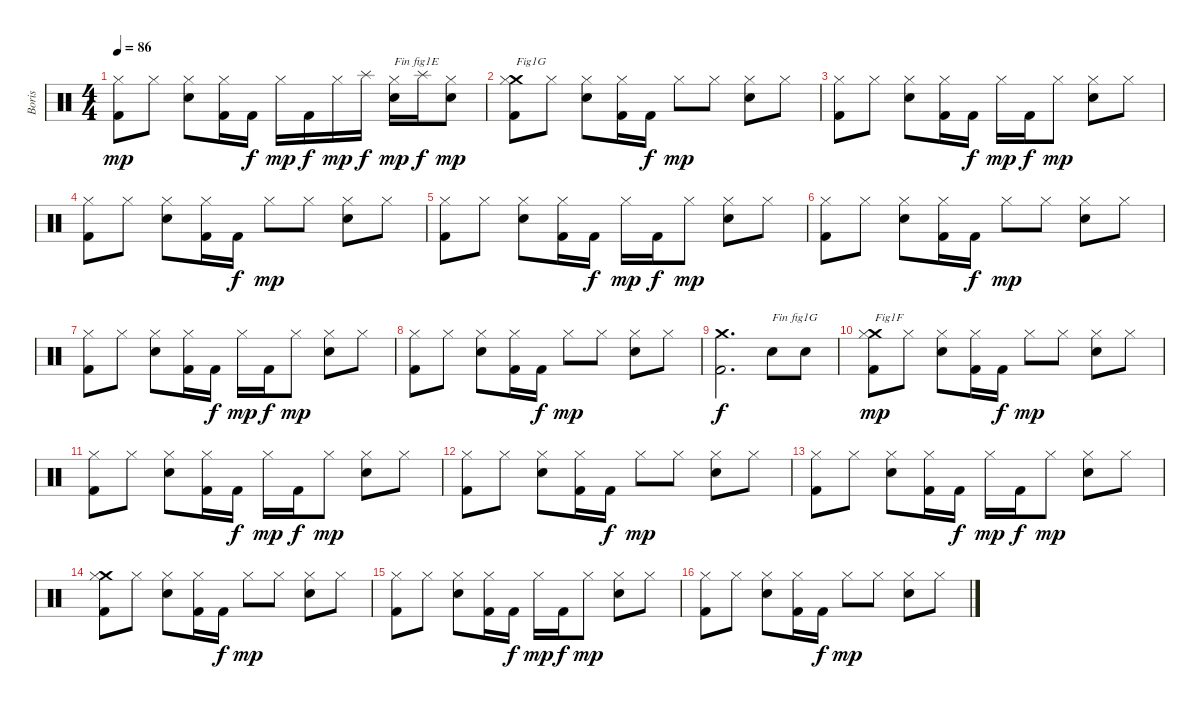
\track ("Boris" "Boris") {instrument percussion}
\staff {score}
\articulation defaults
\ts (4 4)
\tempo 86
\clef neutral
\ks c
("Kick (hit) 2" "Hi-Hat (closed)").8{dy mp} "Hi-Hat (closed)".8 ("Electric Snare (hit)" "Hi-Hat (closed)").8 ("Kick (hit) 2" "Hi-Hat (closed)").16 "Kick (hit) 2".16{dy f} "Hi-Hat (closed)".16{dy mp} "Kick (hit) 2".16{dy f} "Hi-Hat (closed)".16{dy mp} "Splash (hit)".16{dy f} ("Electric Snare (hit)" "Hi-Hat (closed)").16{txt "Fin fig1E" dy mp} "Splash (hit)".16{dy f} ("Electric Snare (hit)" "Hi-Hat (closed)").8{dy mp} |
("Kick (hit) 2" "Crash medium (hit)" "Hi-Hat (closed)").8{txt "Fig1G"} "Hi-Hat (closed)".8 ("Electric Snare (hit)" "Hi-Hat (closed)").8 ("Kick (hit) 2" "Hi-Hat (closed)").16 "Kick (hit) 2".16{dy f} "Hi-Hat (closed)".8{dy mp} "Hi-Hat (closed)".8 ("Electric Snare (hit)" "Hi-Hat (closed)").8 "Hi-Hat (closed)".8 |
("Kick (hit) 2" "Hi-Hat (closed)").8 "Hi-Hat (closed)".8 ("Electric Snare (hit)" "Hi-Hat (closed)").8 ("Kick (hit) 2" "Hi-Hat (closed)").16 "Kick (hit) 2".16{dy f} "Hi-Hat (closed)".16{dy mp} "Kick (hit) 2".16{dy f} "Hi-Hat (closed)".8{dy mp} ("Electric Snare (hit)" "Hi-Hat (closed)").8 "Hi-Hat (closed)".8 |
("Kick (hit) 2" "Hi-Hat (closed)").8 "Hi-Hat (closed)".8 ("Electric Snare (hit)" "Hi-Hat (closed)").8 ("Kick (hit) 2" "Hi-Hat (closed)").16 "Kick (hit) 2".16{dy f} "Hi-Hat (closed)".8{dy mp} "Hi-Hat (closed)".8 ("Electric Snare (hit)" "Hi-Hat (closed)").8 "Hi-Hat (closed)".8 |
("Kick (hit) 2" "Hi-Hat (closed)").8 "Hi-Hat (closed)".8 ("Electric Snare (hit)" "Hi-Hat (closed)").8 ("Kick (hit) 2" "Hi-Hat (closed)").16 "Kick (hit) 2".16{dy f} "Hi-Hat (closed)".16{dy mp} "Kick (hit) 2".16{dy f} "Hi-Hat (closed)".8{dy mp} ("Electric Snare (hit)" "Hi-Hat (closed)").8 "Hi-Hat (closed)".8 |
("Kick (hit) 2" "Hi-Hat (closed)").8 "Hi-Hat (closed)".8 ("Electric Snare (hit)" "Hi-Hat (closed)").8 ("Kick (hit) 2" "Hi-Hat (closed)").16 "Kick (hit) 2".16{dy f} "Hi-Hat (closed)".8{dy mp} "Hi-Hat (closed)".8 ("Electric Snare (hit)" "Hi-Hat (closed)").8 "Hi-Hat (closed)".8 |
("Kick (hit) 2" "Hi-Hat (closed)").8 "Hi-Hat (closed)".8 ("Electric Snare (hit)" "Hi-Hat (closed)").8 ("Kick (hit) 2" "Hi-Hat (closed)").16 "Kick (hit) 2".16{dy f} "Hi-Hat (closed)".16{dy mp} "Kick (hit) 2".16{dy f} "Hi-Hat (closed)".8{dy mp} ("Electric Snare (hit)" "Hi-Hat (closed)").8 "Hi-Hat (closed)".8 |
("Kick (hit) 2" "Hi-Hat (closed)").8 "Hi-Hat (closed)".8 ("Electric Snare (hit)" "Hi-Hat (closed)").8 ("Kick (hit) 2" "Hi-Hat (closed)").16 "Kick (hit) 2".16{dy f} "Hi-Hat (closed)".8{dy mp} "Hi-Hat (closed)".8 ("Electric Snare (hit)" "Hi-Hat (closed)").8 "Hi-Hat (closed)".8 |
("Kick (hit) 2" "Crash medium (hit)").2{d dy f} "Electric Snare (hit)".8{txt "Fin fig1G"} "Electric Snare (hit)".8 |
("Kick (hit) 2" "Crash medium (hit)" "Hi-Hat (closed)").8{txt "Fig1F" dy mp} "Hi-Hat (closed)".8 ("Electric Snare (hit)" "Hi-Hat (closed)").8 ("Kick (hit) 2" "Hi-Hat (closed)").16 "Kick (hit) 2".16{dy f} "Hi-Hat (closed)".8{dy mp} "Hi-Hat (closed)".8 ("Electric Snare (hit)" "Hi-Hat (closed)").8 "Hi-Hat (closed)".8 |
("Kick (hit) 2" "Hi-Hat (closed)").8 "Hi-Hat (closed)".8 ("Electric Snare (hit)" "Hi-Hat (closed)").8 ("Kick (hit) 2" "Hi-Hat (closed)").16 "Kick (hit) 2".16{dy f} "Hi-Hat (closed)".16{dy mp} "Kick (hit) 2".16{dy f} "Hi-Hat (closed)".8{dy mp} ("Electric Snare (hit)" "Hi-Hat (closed)").8 "Hi-Hat (closed)".8 |
("Kick (hit) 2" "Hi-Hat (closed)").8 "Hi-Hat (closed)".8 ("Electric Snare (hit)" "Hi-Hat (closed)").8 ("Kick (hit) 2" "Hi-Hat (closed)").16 "Kick (hit) 2".16{dy f} "Hi-Hat (closed)".8{dy mp} "Hi-Hat (closed)".8 ("Electric Snare (hit)" "Hi-Hat (closed)").8 "Hi-Hat (closed)".8 |
("Kick (hit) 2" "Hi-Hat (closed)").8 "Hi-Hat (closed)".8 ("Electric Snare (hit)" "Hi-Hat (closed)").8 ("Kick (hit) 2" "Hi-Hat (closed)").16 "Kick (hit) 2".16{dy f} "Hi-Hat (closed)".16{dy mp} "Kick (hit) 2".16{dy f} "Hi-Hat (closed)".8{dy mp} ("Electric Snare (hit)" "Hi-Hat (closed)").8 "Hi-Hat (closed)".8 |
("Kick (hit) 2" "Crash medium (hit)" "Hi-Hat (closed)").8 "Hi-Hat (closed)".8 ("Electric Snare (hit)" "Hi-Hat (closed)").8 ("Kick (hit) 2" "Hi-Hat (closed)").16 "Kick (hit) 2".16{dy f} "Hi-Hat (closed)".8{dy mp} "Hi-Hat (closed)".8 ("Electric Snare (hit)" "Hi-Hat (closed)").8 "Hi-Hat (closed)".8 |
("Kick (hit) 2" "Hi-Hat (closed)").8 "Hi-Hat (closed)".8 ("Electric Snare (hit)" "Hi-Hat (closed)").8 ("Kick (hit) 2" "Hi-Hat (closed)").16 "Kick (hit) 2".16{dy f} "Hi-Hat (closed)".16{dy mp} "Kick (hit) 2".16{dy f} "Hi-Hat (closed)".8{dy mp} ("Electric Snare (hit)" "Hi-Hat (closed)").8 "Hi-Hat (closed)".8 |
("Kick (hit) 2" "Hi-Hat (closed)").8 "Hi-Hat (closed)".8 ("Electric Snare (hit)" "Hi-Hat (closed)").8 ("Kick (hit) 2" "Hi-Hat (closed)").16 "Kick (hit) 2".16{dy f} "Hi-Hat (closed)".8{dy mp} "Hi-Hat (closed)".8 ("Electric Snare (hit)" "Hi-Hat (closed)").8 "Hi-Hat (closed)".8
